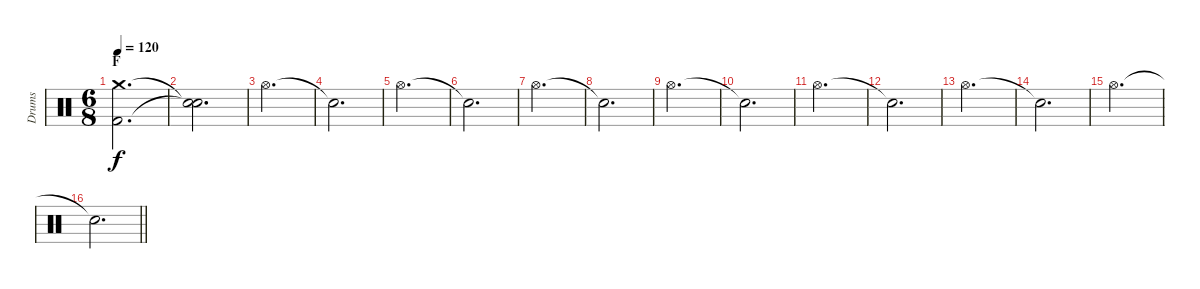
\track ("Drums" "Drums") {instrument percussion}
\staff {score}
\articulation defaults
\ts (6 8)
\section ("" "F")
\tempo 120
\clef neutral
\ks c
("Crash medium (hit)" "Kick (hit) 2").2{d dy f} |
("Snare (hit)"{t} "Snare (hit)"{t}).2{d} |
"Hi-Hat (open)".2{d} |
"Snare (hit)"{t}.2{d} |
"Hi-Hat (open)".2{d} |
"Snare (hit)"{t}.2{d} |
"Hi-Hat (open)".2{d} |
"Snare (hit)"{t}.2{d} |
"Hi-Hat (open)".2{d} |
"Snare (hit)"{t}.2{d} |
"Hi-Hat (open)".2{d} |
"Snare (hit)"{t}.2{d} |
"Hi-Hat (open)".2{d} |
"Snare (hit)"{t}.2{d} |
"Hi-Hat (open)".2{d} |
\barLineRight lightlight "Snare (hit)"{t}.2{d}
